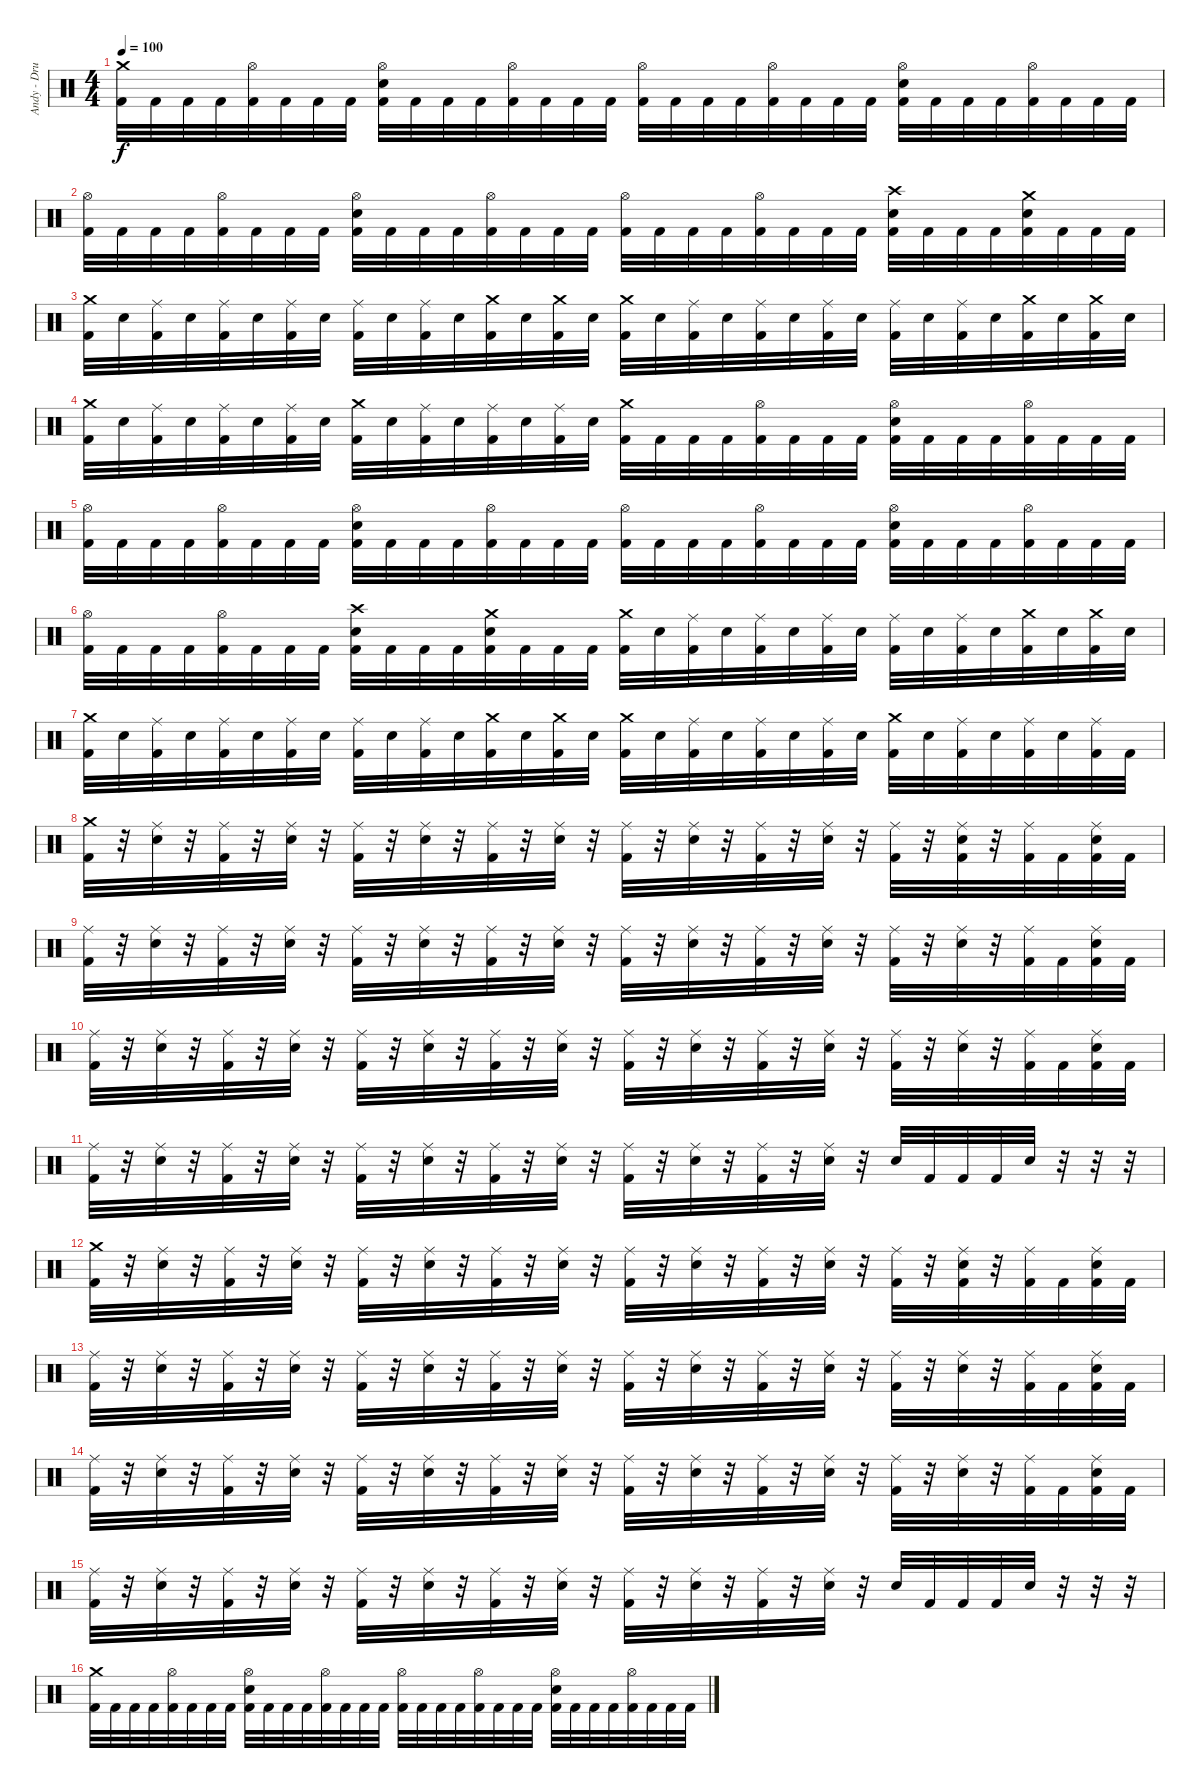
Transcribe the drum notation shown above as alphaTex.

\track ("Andy - Drums" "Andy - Dru") {instrument percussion}
\staff {score}
\articulation defaults
\ts (4 4)
\tempo 100
\clef neutral
\ks c
("Crash medium (hit)" "Kick (hit) 2").32{dy f} "Kick (hit) 2".32 "Kick (hit) 2".32 "Kick (hit) 2".32 ("Hi-Hat (open)" "Kick (hit) 2").32 "Kick (hit) 2".32 "Kick (hit) 2".32 "Kick (hit) 2".32 ("Hi-Hat (open)" "Electric Snare (hit)" "Kick (hit) 2").32 "Kick (hit) 2".32 "Kick (hit) 2".32 "Kick (hit) 2".32 ("Hi-Hat (open)" "Kick (hit) 2").32 "Kick (hit) 2".32 "Kick (hit) 2".32 "Kick (hit) 2".32 ("Hi-Hat (open)" "Kick (hit) 2").32 "Kick (hit) 2".32 "Kick (hit) 2".32 "Kick (hit) 2".32 ("Hi-Hat (open)" "Kick (hit) 2").32 "Kick (hit) 2".32 "Kick (hit) 2".32 "Kick (hit) 2".32 ("Hi-Hat (open)" "Electric Snare (hit)" "Kick (hit) 2").32 "Kick (hit) 2".32 "Kick (hit) 2".32 "Kick (hit) 2".32 ("Hi-Hat (open)" "Kick (hit) 2").32 "Kick (hit) 2".32 "Kick (hit) 2".32 "Kick (hit) 2".32 |
("Hi-Hat (open)" "Kick (hit) 2").32 "Kick (hit) 2".32 "Kick (hit) 2".32 "Kick (hit) 2".32 ("Hi-Hat (open)" "Kick (hit) 2").32 "Kick (hit) 2".32 "Kick (hit) 2".32 "Kick (hit) 2".32 ("Hi-Hat (open)" "Electric Snare (hit)" "Kick (hit) 2").32 "Kick (hit) 2".32 "Kick (hit) 2".32 "Kick (hit) 2".32 ("Hi-Hat (open)" "Kick (hit) 2").32 "Kick (hit) 2".32 "Kick (hit) 2".32 "Kick (hit) 2".32 ("Hi-Hat (open)" "Kick (hit) 2").32 "Kick (hit) 2".32 "Kick (hit) 2".32 "Kick (hit) 2".32 ("Hi-Hat (open)" "Kick (hit) 2").32 "Kick (hit) 2".32 "Kick (hit) 2".32 "Kick (hit) 2".32 ("Crash high (hit)" "Electric Snare (hit)" "Kick (hit) 2").32 "Kick (hit) 2".32 "Kick (hit) 2".32 "Kick (hit) 2".32 ("Crash medium (hit)" "Electric Snare (hit)" "Kick (hit) 2").32 "Kick (hit) 2".32 "Kick (hit) 2".32 "Kick (hit) 2".32 |
("Crash medium (hit)" "Kick (hit) 2").32 "Electric Snare (hit)".32 ("Ride (middle)" "Kick (hit) 2").32 "Electric Snare (hit)".32 ("Ride (middle)" "Kick (hit) 2").32 "Electric Snare (hit)".32 ("Ride (middle)" "Kick (hit) 2").32 "Electric Snare (hit)".32 ("Ride (middle)" "Kick (hit) 2").32 "Electric Snare (hit)".32 ("Ride (middle)" "Kick (hit) 2").32 "Electric Snare (hit)".32 ("Crash medium (hit)" "Kick (hit) 2").32 "Electric Snare (hit)".32 ("Crash medium (hit)" "Kick (hit) 2").32 "Electric Snare (hit)".32 ("Crash medium (hit)" "Kick (hit) 2").32 "Electric Snare (hit)".32 ("Ride (middle)" "Kick (hit) 2").32 "Electric Snare (hit)".32 ("Ride (middle)" "Kick (hit) 2").32 "Electric Snare (hit)".32 ("Ride (middle)" "Kick (hit) 2").32 "Electric Snare (hit)".32 ("Ride (middle)" "Kick (hit) 2").32 "Electric Snare (hit)".32 ("Ride (middle)" "Kick (hit) 2").32 "Electric Snare (hit)".32 ("Crash medium (hit)" "Kick (hit) 2").32 "Electric Snare (hit)".32 ("Crash medium (hit)" "Kick (hit) 2").32 "Electric Snare (hit)".32 |
("Crash medium (hit)" "Kick (hit) 2").32 "Electric Snare (hit)".32 ("Ride (middle)" "Kick (hit) 2").32 "Electric Snare (hit)".32 ("Ride (middle)" "Kick (hit) 2").32 "Electric Snare (hit)".32 ("Ride (middle)" "Kick (hit) 2").32 "Electric Snare (hit)".32 ("Crash medium (hit)" "Kick (hit) 2").32 "Electric Snare (hit)".32 ("Ride (middle)" "Kick (hit) 2").32 "Electric Snare (hit)".32 ("Ride (middle)" "Kick (hit) 2").32 "Electric Snare (hit)".32 ("Ride (middle)" "Kick (hit) 2").32 "Electric Snare (hit)".32 ("Crash medium (hit)" "Kick (hit) 2").32 "Kick (hit) 2".32 "Kick (hit) 2".32 "Kick (hit) 2".32 ("Hi-Hat (open)" "Kick (hit) 2").32 "Kick (hit) 2".32 "Kick (hit) 2".32 "Kick (hit) 2".32 ("Hi-Hat (open)" "Electric Snare (hit)" "Kick (hit) 2").32 "Kick (hit) 2".32 "Kick (hit) 2".32 "Kick (hit) 2".32 ("Hi-Hat (open)" "Kick (hit) 2").32 "Kick (hit) 2".32 "Kick (hit) 2".32 "Kick (hit) 2".32 |
("Hi-Hat (open)" "Kick (hit) 2").32 "Kick (hit) 2".32 "Kick (hit) 2".32 "Kick (hit) 2".32 ("Hi-Hat (open)" "Kick (hit) 2").32 "Kick (hit) 2".32 "Kick (hit) 2".32 "Kick (hit) 2".32 ("Hi-Hat (open)" "Electric Snare (hit)" "Kick (hit) 2").32 "Kick (hit) 2".32 "Kick (hit) 2".32 "Kick (hit) 2".32 ("Hi-Hat (open)" "Kick (hit) 2").32 "Kick (hit) 2".32 "Kick (hit) 2".32 "Kick (hit) 2".32 ("Hi-Hat (open)" "Kick (hit) 2").32 "Kick (hit) 2".32 "Kick (hit) 2".32 "Kick (hit) 2".32 ("Hi-Hat (open)" "Kick (hit) 2").32 "Kick (hit) 2".32 "Kick (hit) 2".32 "Kick (hit) 2".32 ("Hi-Hat (open)" "Electric Snare (hit)" "Kick (hit) 2").32 "Kick (hit) 2".32 "Kick (hit) 2".32 "Kick (hit) 2".32 ("Hi-Hat (open)" "Kick (hit) 2").32 "Kick (hit) 2".32 "Kick (hit) 2".32 "Kick (hit) 2".32 |
("Hi-Hat (open)" "Kick (hit) 2").32 "Kick (hit) 2".32 "Kick (hit) 2".32 "Kick (hit) 2".32 ("Hi-Hat (open)" "Kick (hit) 2").32 "Kick (hit) 2".32 "Kick (hit) 2".32 "Kick (hit) 2".32 ("Crash high (hit)" "Electric Snare (hit)" "Kick (hit) 2").32 "Kick (hit) 2".32 "Kick (hit) 2".32 "Kick (hit) 2".32 ("Crash medium (hit)" "Electric Snare (hit)" "Kick (hit) 2").32 "Kick (hit) 2".32 "Kick (hit) 2".32 "Kick (hit) 2".32 ("Crash medium (hit)" "Kick (hit) 2").32 "Electric Snare (hit)".32 ("Ride (middle)" "Kick (hit) 2").32 "Electric Snare (hit)".32 ("Ride (middle)" "Kick (hit) 2").32 "Electric Snare (hit)".32 ("Ride (middle)" "Kick (hit) 2").32 "Electric Snare (hit)".32 ("Ride (middle)" "Kick (hit) 2").32 "Electric Snare (hit)".32 ("Ride (middle)" "Kick (hit) 2").32 "Electric Snare (hit)".32 ("Crash medium (hit)" "Kick (hit) 2").32 "Electric Snare (hit)".32 ("Crash medium (hit)" "Kick (hit) 2").32 "Electric Snare (hit)".32 |
("Crash medium (hit)" "Kick (hit) 2").32 "Electric Snare (hit)".32 ("Ride (middle)" "Kick (hit) 2").32 "Electric Snare (hit)".32 ("Ride (middle)" "Kick (hit) 2").32 "Electric Snare (hit)".32 ("Ride (middle)" "Kick (hit) 2").32 "Electric Snare (hit)".32 ("Ride (middle)" "Kick (hit) 2").32 "Electric Snare (hit)".32 ("Ride (middle)" "Kick (hit) 2").32 "Electric Snare (hit)".32 ("Crash medium (hit)" "Kick (hit) 2").32 "Electric Snare (hit)".32 ("Crash medium (hit)" "Kick (hit) 2").32 "Electric Snare (hit)".32 ("Crash medium (hit)" "Kick (hit) 2").32 "Electric Snare (hit)".32 ("Ride (middle)" "Kick (hit) 2").32 "Electric Snare (hit)".32 ("Ride (middle)" "Kick (hit) 2").32 "Electric Snare (hit)".32 ("Ride (middle)" "Kick (hit) 2").32 "Electric Snare (hit)".32 ("Crash medium (hit)" "Kick (hit) 2").32 "Electric Snare (hit)".32 ("Ride (middle)" "Kick (hit) 2").32 "Electric Snare (hit)".32 ("Ride (middle)" "Kick (hit) 2").32 "Electric Snare (hit)".32 ("Ride (middle)" "Kick (hit) 2").32 "Kick (hit) 2".32 |
("Crash medium (hit)" "Kick (hit) 2").32 r.32 ("Ride (middle)" "Electric Snare (hit)").32 r.32 ("Ride (middle)" "Kick (hit) 2").32 r.32 ("Ride (middle)" "Electric Snare (hit)").32 r.32 ("Ride (middle)" "Kick (hit) 2").32 r.32 ("Ride (middle)" "Electric Snare (hit)").32 r.32 ("Ride (middle)" "Kick (hit) 2").32 r.32 ("Ride (middle)" "Electric Snare (hit)").32 r.32 ("Ride (middle)" "Kick (hit) 2").32 r.32 ("Ride (middle)" "Electric Snare (hit)").32 r.32 ("Ride (middle)" "Kick (hit) 2").32 r.32 ("Ride (middle)" "Electric Snare (hit)").32 r.32 ("Ride (middle)" "Kick (hit) 2").32 r.32 ("Ride (middle)" "Electric Snare (hit)" "Kick (hit) 2").32 r.32 ("Ride (middle)" "Kick (hit) 2").32 "Kick (hit) 2".32 ("Ride (middle)" "Electric Snare (hit)" "Kick (hit) 2").32 "Kick (hit) 2".32 |
("Ride (middle)" "Kick (hit) 2").32 r.32 ("Ride (middle)" "Electric Snare (hit)").32 r.32 ("Ride (middle)" "Kick (hit) 2").32 r.32 ("Ride (middle)" "Electric Snare (hit)").32 r.32 ("Ride (middle)" "Kick (hit) 2").32 r.32 ("Ride (middle)" "Electric Snare (hit)").32 r.32 ("Ride (middle)" "Kick (hit) 2").32 r.32 ("Ride (middle)" "Electric Snare (hit)").32 r.32 ("Ride (middle)" "Kick (hit) 2").32 r.32 ("Ride (middle)" "Electric Snare (hit)").32 r.32 ("Ride (middle)" "Kick (hit) 2").32 r.32 ("Ride (middle)" "Electric Snare (hit)").32 r.32 ("Ride (middle)" "Kick (hit) 2").32 r.32 ("Ride (middle)" "Electric Snare (hit)").32 r.32 ("Ride (middle)" "Kick (hit) 2").32 "Kick (hit) 2".32 ("Ride (middle)" "Electric Snare (hit)" "Kick (hit) 2").32 "Kick (hit) 2".32 |
("Ride (middle)" "Kick (hit) 2").32 r.32 ("Ride (middle)" "Electric Snare (hit)").32 r.32 ("Ride (middle)" "Kick (hit) 2").32 r.32 ("Ride (middle)" "Electric Snare (hit)").32 r.32 ("Ride (middle)" "Kick (hit) 2").32 r.32 ("Ride (middle)" "Electric Snare (hit)").32 r.32 ("Ride (middle)" "Kick (hit) 2").32 r.32 ("Ride (middle)" "Electric Snare (hit)").32 r.32 ("Ride (middle)" "Kick (hit) 2").32 r.32 ("Ride (middle)" "Electric Snare (hit)").32 r.32 ("Ride (middle)" "Kick (hit) 2").32 r.32 ("Ride (middle)" "Electric Snare (hit)").32 r.32 ("Ride (middle)" "Kick (hit) 2").32 r.32 ("Ride (middle)" "Electric Snare (hit)").32 r.32 ("Ride (middle)" "Kick (hit) 2").32 "Kick (hit) 2".32 ("Ride (middle)" "Electric Snare (hit)" "Kick (hit) 2").32 "Kick (hit) 2".32 |
("Ride (middle)" "Kick (hit) 2").32 r.32 ("Ride (middle)" "Electric Snare (hit)").32 r.32 ("Ride (middle)" "Kick (hit) 2").32 r.32 ("Ride (middle)" "Electric Snare (hit)").32 r.32 ("Ride (middle)" "Kick (hit) 2").32 r.32 ("Ride (middle)" "Electric Snare (hit)").32 r.32 ("Ride (middle)" "Kick (hit) 2").32 r.32 ("Ride (middle)" "Electric Snare (hit)").32 r.32 ("Ride (middle)" "Kick (hit) 2").32 r.32 ("Ride (middle)" "Electric Snare (hit)").32 r.32 ("Ride (middle)" "Kick (hit) 2").32 r.32 ("Ride (middle)" "Electric Snare (hit)").32 r.32 "Electric Snare (hit)".32 "Kick (hit) 2".32 "Kick (hit) 2".32 "Kick (hit) 2".32 "Electric Snare (hit)".32 r.32 r.32 r.32 |
("Crash medium (hit)" "Kick (hit) 2").32 r.32 ("Ride (middle)" "Electric Snare (hit)").32 r.32 ("Ride (middle)" "Kick (hit) 2").32 r.32 ("Ride (middle)" "Electric Snare (hit)").32 r.32 ("Ride (middle)" "Kick (hit) 2").32 r.32 ("Ride (middle)" "Electric Snare (hit)").32 r.32 ("Ride (middle)" "Kick (hit) 2").32 r.32 ("Ride (middle)" "Electric Snare (hit)").32 r.32 ("Ride (middle)" "Kick (hit) 2").32 r.32 ("Ride (middle)" "Electric Snare (hit)").32 r.32 ("Ride (middle)" "Kick (hit) 2").32 r.32 ("Ride (middle)" "Electric Snare (hit)").32 r.32 ("Ride (middle)" "Kick (hit) 2").32 r.32 ("Ride (middle)" "Electric Snare (hit)" "Kick (hit) 2").32 r.32 ("Ride (middle)" "Kick (hit) 2").32 "Kick (hit) 2".32 ("Ride (middle)" "Electric Snare (hit)" "Kick (hit) 2").32 "Kick (hit) 2".32 |
("Ride (middle)" "Kick (hit) 2").32 r.32 ("Ride (middle)" "Electric Snare (hit)").32 r.32 ("Ride (middle)" "Kick (hit) 2").32 r.32 ("Ride (middle)" "Electric Snare (hit)").32 r.32 ("Ride (middle)" "Kick (hit) 2").32 r.32 ("Ride (middle)" "Electric Snare (hit)").32 r.32 ("Ride (middle)" "Kick (hit) 2").32 r.32 ("Ride (middle)" "Electric Snare (hit)").32 r.32 ("Ride (middle)" "Kick (hit) 2").32 r.32 ("Ride (middle)" "Electric Snare (hit)").32 r.32 ("Ride (middle)" "Kick (hit) 2").32 r.32 ("Ride (middle)" "Electric Snare (hit)").32 r.32 ("Ride (middle)" "Kick (hit) 2").32 r.32 ("Ride (middle)" "Electric Snare (hit)").32 r.32 ("Ride (middle)" "Kick (hit) 2").32 "Kick (hit) 2".32 ("Ride (middle)" "Electric Snare (hit)" "Kick (hit) 2").32 "Kick (hit) 2".32 |
("Ride (middle)" "Kick (hit) 2").32 r.32 ("Ride (middle)" "Electric Snare (hit)").32 r.32 ("Ride (middle)" "Kick (hit) 2").32 r.32 ("Ride (middle)" "Electric Snare (hit)").32 r.32 ("Ride (middle)" "Kick (hit) 2").32 r.32 ("Ride (middle)" "Electric Snare (hit)").32 r.32 ("Ride (middle)" "Kick (hit) 2").32 r.32 ("Ride (middle)" "Electric Snare (hit)").32 r.32 ("Ride (middle)" "Kick (hit) 2").32 r.32 ("Ride (middle)" "Electric Snare (hit)").32 r.32 ("Ride (middle)" "Kick (hit) 2").32 r.32 ("Ride (middle)" "Electric Snare (hit)").32 r.32 ("Ride (middle)" "Kick (hit) 2").32 r.32 ("Ride (middle)" "Electric Snare (hit)").32 r.32 ("Ride (middle)" "Kick (hit) 2").32 "Kick (hit) 2".32 ("Ride (middle)" "Electric Snare (hit)" "Kick (hit) 2").32 "Kick (hit) 2".32 |
("Ride (middle)" "Kick (hit) 2").32 r.32 ("Ride (middle)" "Electric Snare (hit)").32 r.32 ("Ride (middle)" "Kick (hit) 2").32 r.32 ("Ride (middle)" "Electric Snare (hit)").32 r.32 ("Ride (middle)" "Kick (hit) 2").32 r.32 ("Ride (middle)" "Electric Snare (hit)").32 r.32 ("Ride (middle)" "Kick (hit) 2").32 r.32 ("Ride (middle)" "Electric Snare (hit)").32 r.32 ("Ride (middle)" "Kick (hit) 2").32 r.32 ("Ride (middle)" "Electric Snare (hit)").32 r.32 ("Ride (middle)" "Kick (hit) 2").32 r.32 ("Ride (middle)" "Electric Snare (hit)").32 r.32 "Electric Snare (hit)".32 "Kick (hit) 2".32 "Kick (hit) 2".32 "Kick (hit) 2".32 "Electric Snare (hit)".32 r.32 r.32 r.32 |
("Crash medium (hit)" "Kick (hit) 2").32 "Kick (hit) 2".32 "Kick (hit) 2".32 "Kick (hit) 2".32 ("Hi-Hat (open)" "Kick (hit) 2").32 "Kick (hit) 2".32 "Kick (hit) 2".32 "Kick (hit) 2".32 ("Hi-Hat (open)" "Electric Snare (hit)" "Kick (hit) 2").32 "Kick (hit) 2".32 "Kick (hit) 2".32 "Kick (hit) 2".32 ("Hi-Hat (open)" "Kick (hit) 2").32 "Kick (hit) 2".32 "Kick (hit) 2".32 "Kick (hit) 2".32 ("Hi-Hat (open)" "Kick (hit) 2").32 "Kick (hit) 2".32 "Kick (hit) 2".32 "Kick (hit) 2".32 ("Hi-Hat (open)" "Kick (hit) 2").32 "Kick (hit) 2".32 "Kick (hit) 2".32 "Kick (hit) 2".32 ("Hi-Hat (open)" "Electric Snare (hit)" "Kick (hit) 2").32 "Kick (hit) 2".32 "Kick (hit) 2".32 "Kick (hit) 2".32 ("Hi-Hat (open)" "Kick (hit) 2").32 "Kick (hit) 2".32 "Kick (hit) 2".32 "Kick (hit) 2".32
